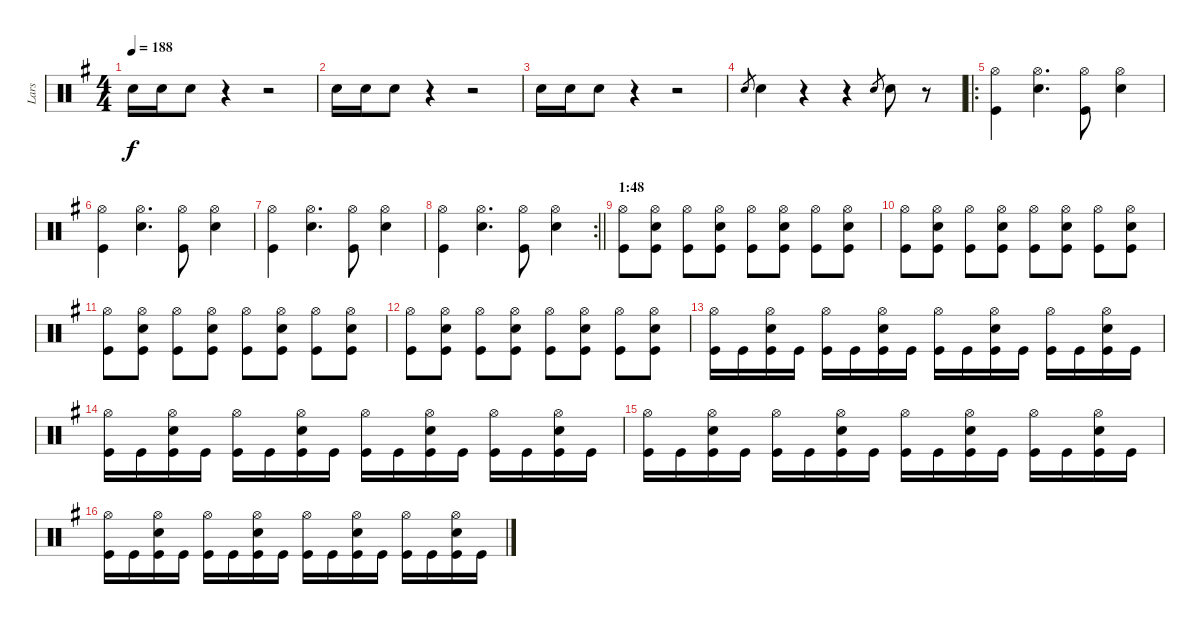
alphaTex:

\track ("Lars" "Lars") {instrument percussion}
\staff {score}
\articulation defaults
\ts (4 4)
\tempo 188
\clef neutral
\ks eminor "Snare (hit) 2".16{dy f} "Snare (hit) 2".16 "Snare (hit) 2".8
r.4 r.2 |
"Snare (hit) 2".16 "Snare (hit) 2".16 "Snare (hit) 2".8 r.4 r.2 |
"Snare (hit) 2".16 "Snare (hit) 2".16 "Snare (hit) 2".8 r.4 r.2 |
"Snare (hit) 2".8{gr} "Snare (hit) 2".4 r.4 r.4 "Snare (hit) 2".8{gr} "Snare (hit) 2".8 r.8 |
\ro
("Hi-Hat (open)" "Kick (hit)").4 ("Hi-Hat (open)" "Snare (hit) 2").4{d} ("Hi-Hat (open)" "Kick (hit)").8 ("Hi-Hat (open)" "Snare (hit) 2").4 |
("Hi-Hat (open)" "Kick (hit)").4 ("Hi-Hat (open)" "Snare (hit) 2").4{d} ("Hi-Hat (open)" "Kick (hit)").8 ("Hi-Hat (open)" "Snare (hit) 2").4 |
("Hi-Hat (open)" "Kick (hit)").4 ("Hi-Hat (open)" "Snare (hit) 2").4{d} ("Hi-Hat (open)" "Kick (hit)").8 ("Hi-Hat (open)" "Snare (hit) 2").4 |
\rc 2
\barLineRight lightlight
("Hi-Hat (open)" "Kick (hit)").4 ("Hi-Hat (open)" "Snare (hit) 2").4{d} ("Hi-Hat (open)" "Kick (hit)").8 ("Hi-Hat (open)" "Snare (hit) 2").4 |
\section ("" "1:48")
("Hi-Hat (open)" "Kick (hit)").8 ("Hi-Hat (open)" "Snare (hit) 2" "Kick (hit)").8 ("Hi-Hat (open)" "Kick (hit)").8 ("Hi-Hat (open)" "Snare (hit) 2" "Kick (hit)").8 ("Hi-Hat (open)" "Kick (hit)").8 ("Hi-Hat (open)" "Snare (hit) 2" "Kick (hit)").8 ("Hi-Hat (open)" "Kick (hit)").8 ("Hi-Hat (open)" "Snare (hit) 2" "Kick (hit)").8 |
("Hi-Hat (open)" "Kick (hit)").8 ("Hi-Hat (open)" "Snare (hit) 2" "Kick (hit)").8 ("Hi-Hat (open)" "Kick (hit)").8 ("Hi-Hat (open)" "Snare (hit) 2" "Kick (hit)").8 ("Hi-Hat (open)" "Kick (hit)").8 ("Hi-Hat (open)" "Snare (hit) 2" "Kick (hit)").8 ("Hi-Hat (open)" "Kick (hit)").8 ("Snare (hit) 2" "Hi-Hat (open)" "Kick (hit)").8 |
("Hi-Hat (open)" "Kick (hit)").8 ("Hi-Hat (open)" "Snare (hit) 2" "Kick (hit)").8 ("Hi-Hat (open)" "Kick (hit)").8 ("Hi-Hat (open)" "Snare (hit) 2" "Kick (hit)").8 ("Hi-Hat (open)" "Kick (hit)").8 ("Hi-Hat (open)" "Snare (hit) 2" "Kick (hit)").8 ("Hi-Hat (open)" "Kick (hit)").8 ("Snare (hit) 2" "Hi-Hat (open)" "Kick (hit)").8 |
("Hi-Hat (open)" "Kick (hit)").8 ("Hi-Hat (open)" "Snare (hit) 2" "Kick (hit)").8 ("Hi-Hat (open)" "Kick (hit)").8 ("Hi-Hat (open)" "Snare (hit) 2" "Kick (hit)").8 ("Hi-Hat (open)" "Kick (hit)").8 ("Hi-Hat (open)" "Snare (hit) 2" "Kick (hit)").8 ("Hi-Hat (open)" "Kick (hit)").8 ("Snare (hit) 2" "Hi-Hat (open)" "Kick (hit)").8 |
("Hi-Hat (open)" "Kick (hit)").16 "Kick (hit)".16 ("Hi-Hat (open)" "Kick (hit)" "Snare (hit) 2").16 "Kick (hit)".16 ("Hi-Hat (open)" "Kick (hit)").16 "Kick (hit)".16 ("Kick (hit)" "Hi-Hat (open)" "Snare (hit) 2").16 "Kick (hit)".16 ("Kick (hit)" "Hi-Hat (open)").16 "Kick (hit)".16 ("Kick (hit)" "Hi-Hat (open)" "Snare (hit) 2").16 "Kick (hit)".16 ("Kick (hit)" "Hi-Hat (open)").16 "Kick (hit)".16 ("Kick (hit)" "Hi-Hat (open)" "Snare (hit) 2").16 "Kick (hit)".16 |
("Hi-Hat (open)" "Kick (hit)").16 "Kick (hit)".16 ("Hi-Hat (open)" "Kick (hit)" "Snare (hit) 2").16 "Kick (hit)".16 ("Hi-Hat (open)" "Kick (hit)").16 "Kick (hit)".16 ("Kick (hit)" "Hi-Hat (open)" "Snare (hit) 2").16 "Kick (hit)".16 ("Kick (hit)" "Hi-Hat (open)").16 "Kick (hit)".16 ("Kick (hit)" "Hi-Hat (open)" "Snare (hit) 2").16 "Kick (hit)".16 ("Kick (hit)" "Hi-Hat (open)").16 "Kick (hit)".16 ("Kick (hit)" "Hi-Hat (open)" "Snare (hit) 2").16 "Kick (hit)".16 |
("Hi-Hat (open)" "Kick (hit)").16 "Kick (hit)".16 ("Hi-Hat (open)" "Kick (hit)" "Snare (hit) 2").16 "Kick (hit)".16 ("Hi-Hat (open)" "Kick (hit)").16 "Kick (hit)".16 ("Kick (hit)" "Hi-Hat (open)" "Snare (hit) 2").16 "Kick (hit)".16 ("Kick (hit)" "Hi-Hat (open)").16 "Kick (hit)".16 ("Kick (hit)" "Hi-Hat (open)" "Snare (hit) 2").16 "Kick (hit)".16 ("Kick (hit)" "Hi-Hat (open)").16 "Kick (hit)".16 ("Kick (hit)" "Hi-Hat (open)" "Snare (hit) 2").16 "Kick (hit)".16 |
("Hi-Hat (open)" "Kick (hit)").16 "Kick (hit)".16 ("Hi-Hat (open)" "Kick (hit)" "Snare (hit) 2").16 "Kick (hit)".16 ("Hi-Hat (open)" "Kick (hit)").16 "Kick (hit)".16 ("Kick (hit)" "Hi-Hat (open)" "Snare (hit) 2").16 "Kick (hit)".16 ("Kick (hit)" "Hi-Hat (open)").16 "Kick (hit)".16 ("Kick (hit)" "Hi-Hat (open)" "Snare (hit) 2").16 "Kick (hit)".16 ("Kick (hit)" "Hi-Hat (open)").16 "Kick (hit)".16 ("Kick (hit)" "Hi-Hat (open)" "Snare (hit) 2").16 "Kick (hit)".16
